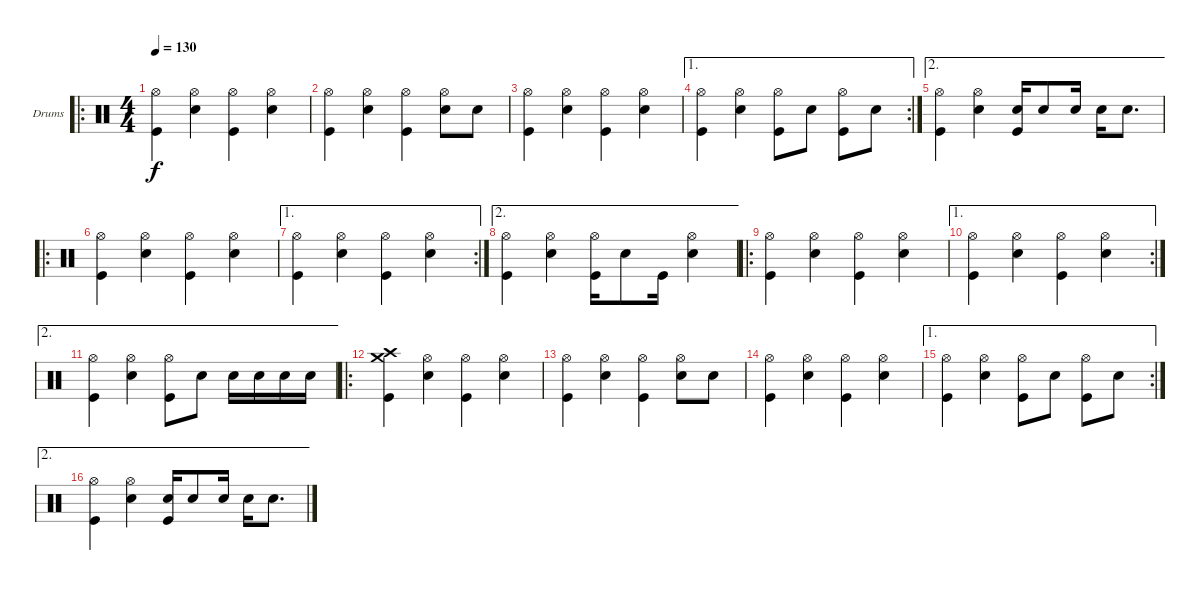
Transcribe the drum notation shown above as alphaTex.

\bracketExtendMode groupsimilarinstruments
\firstSystemTrackNameOrientation horizontal
\otherSystemsTrackNameOrientation horizontal
\track ("Drumkit" "Drums") {instrument percussion}
\staff {score}
\articulation defaults
\ro
\ts (4 4)
\tempo 130
\clef neutral
\ks c
("Hi-Hat (open)" "Kick (hit)").4{dy f} ("Hi-Hat (open)" "Snare (hit) 2").4 ("Hi-Hat (open)" "Kick (hit)").4 ("Hi-Hat (open)" "Snare (hit) 2").4 |
("Hi-Hat (open)" "Kick (hit)").4 ("Hi-Hat (open)" "Snare (hit) 2").4 ("Hi-Hat (open)" "Kick (hit)").4 ("Hi-Hat (open)" "Snare (hit) 2").8 "Snare (hit) 2".8 |
("Hi-Hat (open)" "Kick (hit)").4 ("Hi-Hat (open)" "Snare (hit) 2").4 ("Hi-Hat (open)" "Kick (hit)").4 ("Hi-Hat (open)" "Snare (hit) 2").4 |
\ae 1
\rc 2
("Hi-Hat (open)" "Kick (hit)").4 ("Hi-Hat (open)" "Snare (hit) 2").4 ("Hi-Hat (open)" "Kick (hit)").8 "Snare (hit) 2".8 ("Hi-Hat (open)" "Kick (hit)").8 "Snare (hit) 2".8 |
\ae 2
("Hi-Hat (open)" "Kick (hit)").4 ("Hi-Hat (open)" "Snare (hit) 2").4 ("Snare (hit) 2" "Kick (hit)").16 "Snare (hit) 2".8 "Snare (hit) 2".16 "Snare (hit) 2".16 "Snare (hit) 2".8{d} |
\ro
("Hi-Hat (open)" "Kick (hit)").4 ("Hi-Hat (open)" "Snare (hit) 2").4 ("Hi-Hat (open)" "Kick (hit)").4 ("Hi-Hat (open)" "Snare (hit) 2").4 |
\ae 1
\rc 2
("Hi-Hat (open)" "Kick (hit)").4 ("Hi-Hat (open)" "Snare (hit) 2").4 ("Hi-Hat (open)" "Kick (hit)").4 ("Hi-Hat (open)" "Snare (hit) 2").4 |
\ae 2
("Hi-Hat (open)" "Kick (hit)").4 ("Hi-Hat (open)" "Snare (hit) 2").4 ("Hi-Hat (open)" "Kick (hit)").16 "Snare (hit) 2".8 "Kick (hit)".16 ("Hi-Hat (open)" "Snare (hit) 2").4 |
\ro
("Hi-Hat (open)" "Kick (hit)").4 ("Hi-Hat (open)" "Snare (hit) 2").4 ("Hi-Hat (open)" "Kick (hit)").4 ("Hi-Hat (open)" "Snare (hit) 2").4 |
\ae 1
\rc 2
("Hi-Hat (open)" "Kick (hit)").4 ("Hi-Hat (open)" "Snare (hit) 2").4 ("Hi-Hat (open)" "Kick (hit)").4 ("Hi-Hat (open)" "Snare (hit) 2").4 |
\ae 2
("Hi-Hat (open)" "Kick (hit)").4 ("Hi-Hat (open)" "Snare (hit) 2").4 ("Hi-Hat (open)" "Kick (hit)").8 "Snare (hit) 2".8 "Snare (hit) 2".16 "Snare (hit) 2".16 "Snare (hit) 2".16 "Snare (hit) 2".16 |
\ro
("Crash medium (hit)" "Crash high (hit)" "Kick (hit)").4 ("Hi-Hat (open)" "Snare (hit) 2").4 ("Hi-Hat (open)" "Kick (hit)").4 ("Hi-Hat (open)" "Snare (hit) 2").4 |
("Hi-Hat (open)" "Kick (hit)").4 ("Hi-Hat (open)" "Snare (hit) 2").4 ("Hi-Hat (open)" "Kick (hit)").4 ("Hi-Hat (open)" "Snare (hit) 2").8 "Snare (hit) 2".8 |
("Hi-Hat (open)" "Kick (hit)").4 ("Hi-Hat (open)" "Snare (hit) 2").4 ("Hi-Hat (open)" "Kick (hit)").4 ("Hi-Hat (open)" "Snare (hit) 2").4 |
\ae 1
\rc 2
("Hi-Hat (open)" "Kick (hit)").4 ("Hi-Hat (open)" "Snare (hit) 2").4 ("Hi-Hat (open)" "Kick (hit)").8 "Snare (hit) 2".8 ("Hi-Hat (open)" "Kick (hit)").8 "Snare (hit) 2".8 |
\ae 2
("Hi-Hat (open)" "Kick (hit)").4 ("Hi-Hat (open)" "Snare (hit) 2").4 ("Snare (hit) 2" "Kick (hit)").16 "Snare (hit) 2".8 "Snare (hit) 2".16 "Snare (hit) 2".16 "Snare (hit) 2".8{d}
